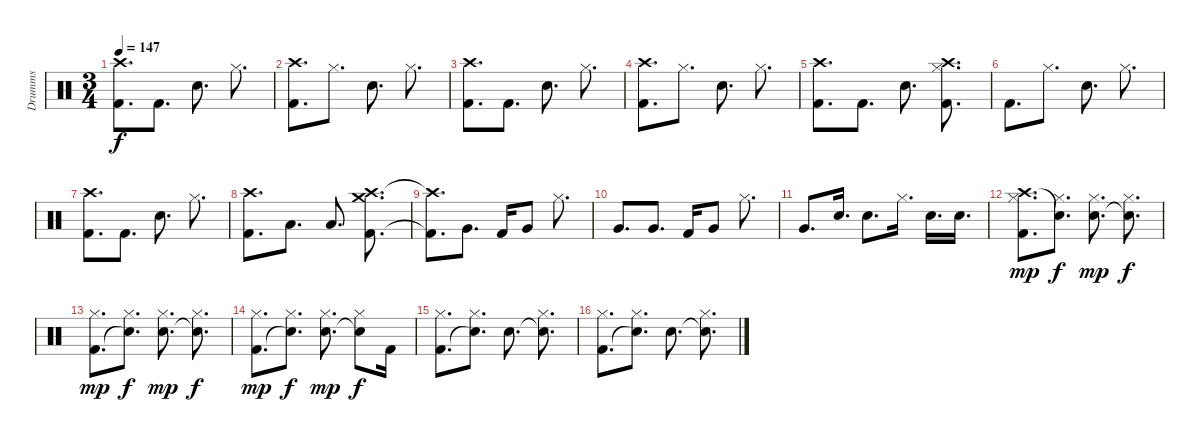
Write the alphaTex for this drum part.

\track ("Drumms" "Drumms") {instrument percussion}
\staff {score}
\articulation defaults
\ts (3 4)
\tempo 147
\clef neutral
\ks c
("Crash high (hit)" "Kick (hit) 2").8{d dy f} "Kick (hit) 2".8{d} "Electric Snare (hit)".8{d} "Hi-Hat (closed)".8{d} |
("Crash high (hit)" "Kick (hit) 2").8{d} "Hi-Hat (closed)".8{d} "Electric Snare (hit)".8{d} "Hi-Hat (closed)".8{d} |
("Crash high (hit)" "Kick (hit) 2").8{d} "Kick (hit) 2".8{d} "Electric Snare (hit)".8{d} "Hi-Hat (closed)".8{d} |
("Crash high (hit)" "Kick (hit) 2").8{d} "Hi-Hat (closed)".8{d} "Electric Snare (hit)".8{d} "Hi-Hat (closed)".8{d} |
("Crash high (hit)" "Kick (hit) 2").8{d} "Kick (hit) 2".8{d} "Electric Snare (hit)".8{d} ("Crash high (hit)" "Kick (hit) 2" "Hi-Hat (closed)").8{d} |
"Kick (hit) 2".8{d} "Hi-Hat (closed)".8{d} "Electric Snare (hit)".8{d} "Hi-Hat (closed)".8{d} |
("Crash high (hit)" "Kick (hit) 2").8{d} "Kick (hit) 2".8{d} "Electric Snare (hit)".8{d} "Hi-Hat (closed)".8{d} |
("Crash high (hit)" "Kick (hit) 2").8{d} "Low Tom (hit)".8{d} "Low Tom (hit)".8{d} ("Crash high (hit)" "Kick (hit) 2" "Crash medium (hit)").8{d} |
("Crash high (hit)"{t} "Kick (hit) 2"{t}).8{d} "Very Low Tom (hit)".8{d} "Kick (hit) 2".16 "Very Low Tom (hit)".8 "Hi-Hat (closed)".8{d} |
"Very Low Tom (hit)".8{d} "Very Low Tom (hit)".8{d} "Kick (hit) 2".16 "Very Low Tom (hit)".8 "Hi-Hat (closed)".8{d} |
"Very Low Tom (hit)".8{d} "Electric Snare (hit)".16{d} "Electric Snare (hit)".8{d} "Hi-Hat (closed)".16{d} "Electric Snare (hit)".16{d} "Electric Snare (hit)".16{d} |
\section ("" "")
("Crash high (hit)" "Kick (hit) 2" "Hi-Hat (closed)").8{d dy mp} ("Snare (hit)"{t} "Hi-Hat (closed)").8{d dy f} ("Electric Snare (hit)" "Hi-Hat (closed)").8{d dy mp} ("Snare (hit)"{t} "Hi-Hat (closed)").8{d dy f} |
("Kick (hit) 2" "Hi-Hat (closed)").8{d dy mp} ("Snare (hit)"{t} "Hi-Hat (closed)").8{d dy f} ("Electric Snare (hit)" "Hi-Hat (closed)").8{d dy mp} ("Snare (hit)"{t} "Hi-Hat (closed)").8{d dy f} |
("Kick (hit) 2" "Hi-Hat (closed)").8{d dy mp} ("Snare (hit)"{t} "Hi-Hat (closed)").8{d dy f} ("Electric Snare (hit)" "Hi-Hat (closed)").8{d dy mp} ("Snare (hit)"{t} "Hi-Hat (closed)").8{dy f} "Kick (hit) 2".16 |
("Kick (hit) 2" "Hi-Hat (closed)").8{d} ("Snare (hit)"{t} "Hi-Hat (closed)").8{d} "Electric Snare (hit)".8{d} ("Snare (hit)"{t} "Hi-Hat (closed)").8{d} |
("Kick (hit) 2" "Hi-Hat (closed)").8{d} ("Snare (hit)"{t} "Hi-Hat (closed)").8{d} "Electric Snare (hit)".8{d} ("Snare (hit)"{t} "Hi-Hat (closed)").8{d}
